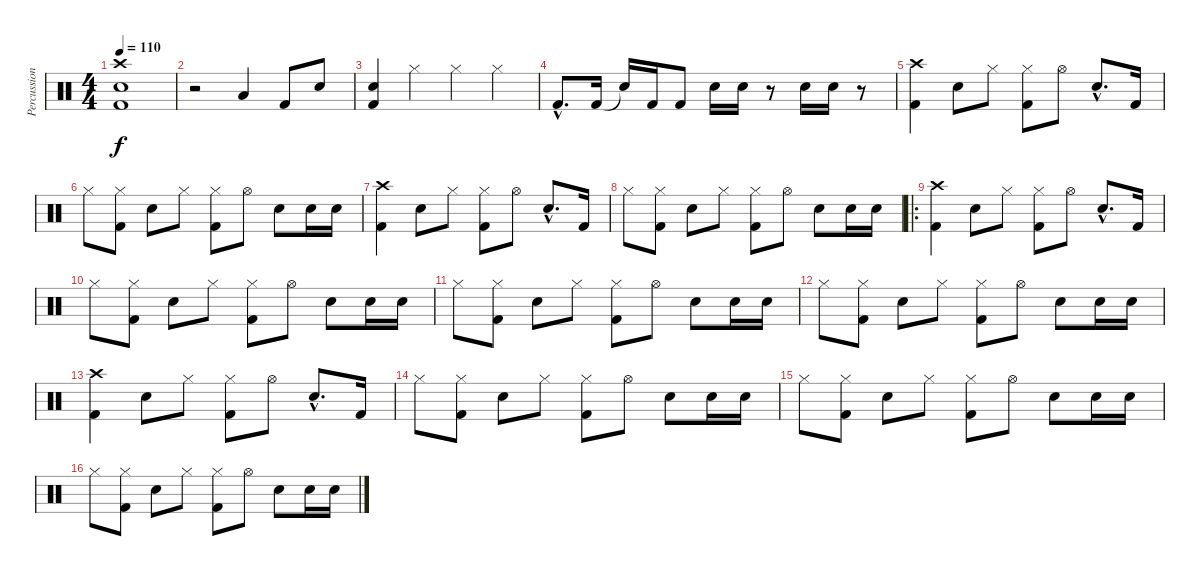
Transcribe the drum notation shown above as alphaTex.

\track ("Percussions" "Percussion") {instrument percussion}
\staff {score}
\articulation defaults
\ts (4 4)
\tempo 110
\clef neutral
\ks c
("Crash high (hit)" "Snare (hit) 2" "Kick (hit) 2").1{dy f} |
r.2 "Low Tom (hit)".4 "Kick (hit) 2".8 "Snare (hit) 2".8 |
("Kick (hit) 2" "Snare (hit) 2").4 "Hi-Hat (closed)".4 "Hi-Hat (closed)".4 "Hi-Hat (closed)".4 |
"Kick (hit) 2"{hac}.8{d} "Kick (hit) 2".16 "Snare (hit)"{t}.16 "Kick (hit) 2".16 "Kick (hit) 2".8 "Snare (hit) 2".16 "Snare (hit) 2".16 r.8 "Snare (hit) 2".16 "Snare (hit) 2".16 r.8 |
("Crash high (hit)" "Kick (hit) 2").4 "Snare (hit) 2".8 "Hi-Hat (closed)".8 ("Kick (hit) 2" "Hi-Hat (closed)").8 "Hi-Hat (open)".8 "Snare (hit) 2"{hac}.8{d} "Kick (hit) 2".16 |
"Hi-Hat (closed)".8 ("Hi-Hat (closed)" "Kick (hit) 2").8 "Snare (hit) 2".8 "Hi-Hat (closed)".8 ("Kick (hit) 2" "Hi-Hat (closed)").8 "Hi-Hat (open)".8 "Snare (hit) 2".8 "Snare (hit) 2".16 "Snare (hit) 2".16 |
("Crash high (hit)" "Kick (hit) 2").4 "Snare (hit) 2".8 "Hi-Hat (closed)".8 ("Kick (hit) 2" "Hi-Hat (closed)").8 "Hi-Hat (open)".8 "Snare (hit) 2"{hac}.8{d} "Kick (hit) 2".16 |
"Hi-Hat (closed)".8 ("Hi-Hat (closed)" "Kick (hit) 2").8 "Snare (hit) 2".8 "Hi-Hat (closed)".8 ("Kick (hit) 2" "Hi-Hat (closed)").8 "Hi-Hat (open)".8 "Snare (hit) 2".8 "Snare (hit) 2".16 "Snare (hit) 2".16 |
\ro
("Crash high (hit)" "Kick (hit) 2").4 "Snare (hit) 2".8 "Hi-Hat (closed)".8 ("Kick (hit) 2" "Hi-Hat (closed)").8 "Hi-Hat (open)".8 "Snare (hit) 2"{hac}.8{d} "Kick (hit) 2".16 |
"Hi-Hat (closed)".8 ("Hi-Hat (closed)" "Kick (hit) 2").8 "Snare (hit) 2".8 "Hi-Hat (closed)".8 ("Kick (hit) 2" "Hi-Hat (closed)").8 "Hi-Hat (open)".8 "Snare (hit) 2".8 "Snare (hit) 2".16 "Snare (hit) 2".16 |
"Hi-Hat (closed)".8 ("Hi-Hat (closed)" "Kick (hit) 2").8 "Snare (hit) 2".8 "Hi-Hat (closed)".8 ("Kick (hit) 2" "Hi-Hat (closed)").8 "Hi-Hat (open)".8 "Snare (hit) 2".8 "Snare (hit) 2".16 "Snare (hit) 2".16 |
"Hi-Hat (closed)".8 ("Hi-Hat (closed)" "Kick (hit) 2").8 "Snare (hit) 2".8 "Hi-Hat (closed)".8 ("Kick (hit) 2" "Hi-Hat (closed)").8 "Hi-Hat (open)".8 "Snare (hit) 2".8 "Snare (hit) 2".16 "Snare (hit) 2".16 |
("Crash high (hit)" "Kick (hit) 2").4 "Snare (hit) 2".8 "Hi-Hat (closed)".8 ("Kick (hit) 2" "Hi-Hat (closed)").8 "Hi-Hat (open)".8 "Snare (hit) 2"{hac}.8{d} "Kick (hit) 2".16 |
"Hi-Hat (closed)".8 ("Hi-Hat (closed)" "Kick (hit) 2").8 "Snare (hit) 2".8 "Hi-Hat (closed)".8 ("Kick (hit) 2" "Hi-Hat (closed)").8 "Hi-Hat (open)".8 "Snare (hit) 2".8 "Snare (hit) 2".16 "Snare (hit) 2".16 |
"Hi-Hat (closed)".8 ("Hi-Hat (closed)" "Kick (hit) 2").8 "Snare (hit) 2".8 "Hi-Hat (closed)".8 ("Kick (hit) 2" "Hi-Hat (closed)").8 "Hi-Hat (open)".8 "Snare (hit) 2".8 "Snare (hit) 2".16 "Snare (hit) 2".16 |
"Hi-Hat (closed)".8 ("Hi-Hat (closed)" "Kick (hit) 2").8 "Snare (hit) 2".8 "Hi-Hat (closed)".8 ("Kick (hit) 2" "Hi-Hat (closed)").8 "Hi-Hat (open)".8 "Snare (hit) 2".8 "Snare (hit) 2".16 "Snare (hit) 2".16
